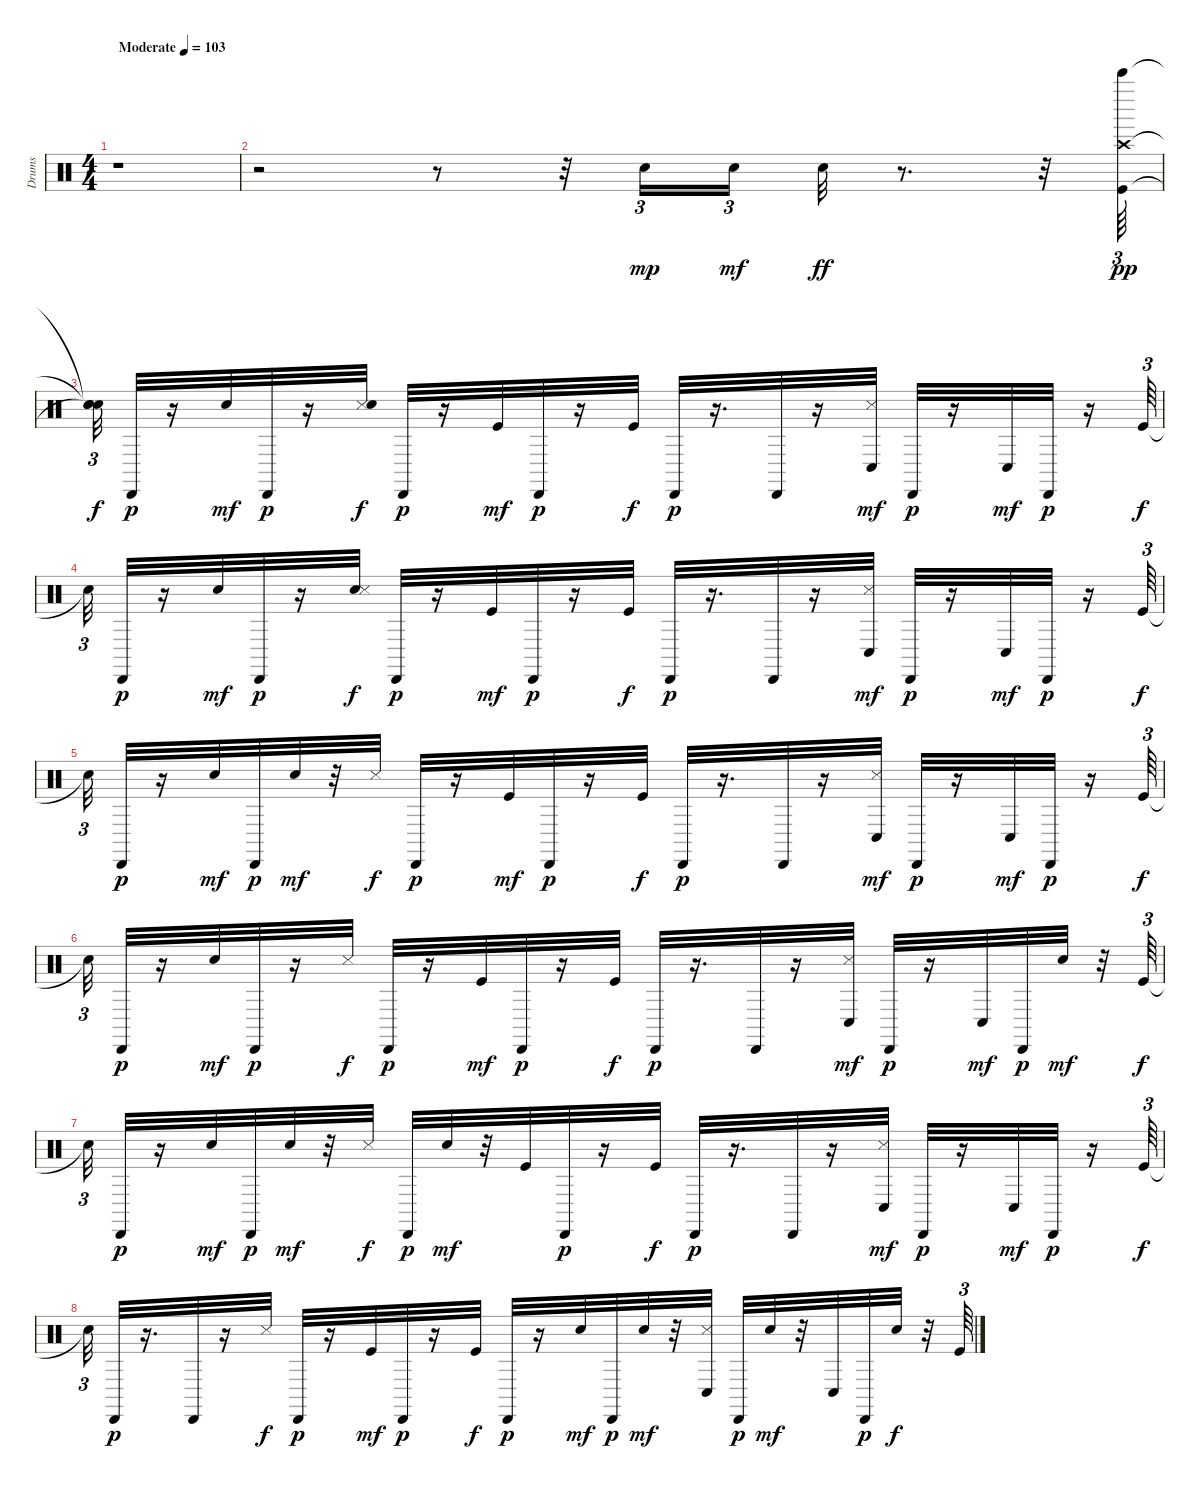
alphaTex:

\track ("Drums" "Drums") {instrument percussion}
\staff {score}
\articulation defaults
\ts (4 4)
\tempo (103 "Moderate")
\clef neutral
\ks c
r.1{dy mp} |
r.2 r.8 r.32 "Snare (hit) 2".16{tu (3 2)} "Snare (hit) 2".16{tu (3 2) dy mf} "Snare (hit) 2".32{dy ff} r.8{d} r.32 ("Crash high (hit)" "Kick (hit)" "Bell Tree (hit)").64{tu (3 2) dy pp} |
("Snare (hit)"{t} "Snare (hit)"{t} "Snare (hit)"{t}).32{tu (3 2) dy f} "Cabasa (hit)".32{dy p} r.16 "Snare (hit) 2".32{dy mf} "Cabasa (hit)".32{dy p} r.16 ("Snare (side stick) 3" "Snare (hit) 2").32{dy f} "Cabasa (hit)".32{dy p} r.16 "Kick (hit)".32{dy mf} "Cabasa (hit)".32{dy p} r.16 "Kick (hit)".32{dy f} "Cabasa (hit)".32{dy p} r.16{d} "Cabasa (hit)".32 r.16 ("Snare (side stick) 3" "Conga low (hit)").32{dy mf} "Cabasa (hit)".32{dy p} r.16 "Conga low (hit)".32{dy mf} "Cabasa (hit)".32{dy p} r.16 "Kick (hit)".64{tu (3 2) dy f} |
"Snare (hit)"{t}.32{tu (3 2)} "Cabasa (hit)".32{dy p} r.16 "Snare (hit) 2".32{dy mf} "Cabasa (hit)".32{dy p} r.16 ("Snare (hit) 2" "Snare (side stick) 3").32{dy f} "Cabasa (hit)".32{dy p} r.16 "Kick (hit)".32{dy mf} "Cabasa (hit)".32{dy p} r.16 "Kick (hit)".32{dy f} "Cabasa (hit)".32{dy p} r.16{d} "Cabasa (hit)".32 r.16 ("Snare (side stick) 3" "Conga low (hit)").32{dy mf} "Cabasa (hit)".32{dy p} r.16 "Conga low (hit)".32{dy mf} "Cabasa (hit)".32{dy p} r.16 "Kick (hit)".64{tu (3 2) dy f} |
"Snare (hit)"{t}.32{tu (3 2)} "Cabasa (hit)".32{dy p} r.16 "Snare (hit) 2".32{dy mf} "Cabasa (hit)".32{dy p} "Snare (hit) 2".32{dy mf} r.32 "Snare (side stick) 3".32{dy f} "Cabasa (hit)".32{dy p} r.16 "Kick (hit)".32{dy mf} "Cabasa (hit)".32{dy p} r.16 "Kick (hit)".32{dy f} "Cabasa (hit)".32{dy p} r.16{d} "Cabasa (hit)".32 r.16 ("Conga low (hit)" "Snare (side stick) 3").32{dy mf} "Cabasa (hit)".32{dy p} r.16 "Conga low (hit)".32{dy mf} "Cabasa (hit)".32{dy p} r.16 "Kick (hit)".64{tu (3 2) dy f} |
"Snare (hit)"{t}.32{tu (3 2)} "Cabasa (hit)".32{dy p} r.16 "Snare (hit) 2".32{dy mf} "Cabasa (hit)".32{dy p} r.16 "Snare (side stick) 3".32{dy f} "Cabasa (hit)".32{dy p} r.16 "Kick (hit)".32{dy mf} "Cabasa (hit)".32{dy p} r.16 "Kick (hit)".32{dy f} "Cabasa (hit)".32{dy p} r.16{d} "Cabasa (hit)".32 r.16 ("Snare (side stick) 3" "Conga low (hit)").32{dy mf} "Cabasa (hit)".32{dy p} r.16 "Conga low (hit)".32{dy mf} "Cabasa (hit)".32{dy p} "Snare (hit) 2".32{dy mf} r.32 "Kick (hit)".64{tu (3 2) dy f} |
"Snare (hit)"{t}.32{tu (3 2)} "Cabasa (hit)".32{dy p} r.16 "Snare (hit) 2".32{dy mf} "Cabasa (hit)".32{dy p} "Snare (hit) 2".32{dy mf} r.32 "Snare (side stick) 3".32{dy f} "Cabasa (hit)".32{dy p} "Snare (hit) 2".32{dy mf} r.32 "Kick (hit)".32 "Cabasa (hit)".32{dy p} r.16 "Kick (hit)".32{dy f} "Cabasa (hit)".32{dy p} r.16{d} "Cabasa (hit)".32 r.16 ("Snare (side stick) 3" "Conga low (hit)").32{dy mf} "Cabasa (hit)".32{dy p} r.16 "Conga low (hit)".32{dy mf} "Cabasa (hit)".32{dy p} r.16 "Kick (hit)".64{tu (3 2) dy f} |
"Snare (hit)"{t}.32{tu (3 2)} "Cabasa (hit)".32{dy p} r.16{d} "Cabasa (hit)".32 r.16 "Snare (side stick) 3".32{dy f} "Cabasa (hit)".32{dy p} r.16 "Kick (hit)".32{dy mf} "Cabasa (hit)".32{dy p} r.16 "Kick (hit)".32{dy f} "Cabasa (hit)".32{dy p} r.16 "Snare (hit) 2".32{dy mf} "Cabasa (hit)".32{dy p} "Snare (hit) 2".32{dy mf} r.32 ("Snare (side stick) 3" "Conga low (hit)").32 "Cabasa (hit)".32{dy p} "Snare (hit) 2".32{dy mf} r.32 "Conga low (hit)".32 "Cabasa (hit)".32{dy p} "Snare (hit) 2".32{dy f} r.32 "Kick (hit)".64{tu (3 2)}
